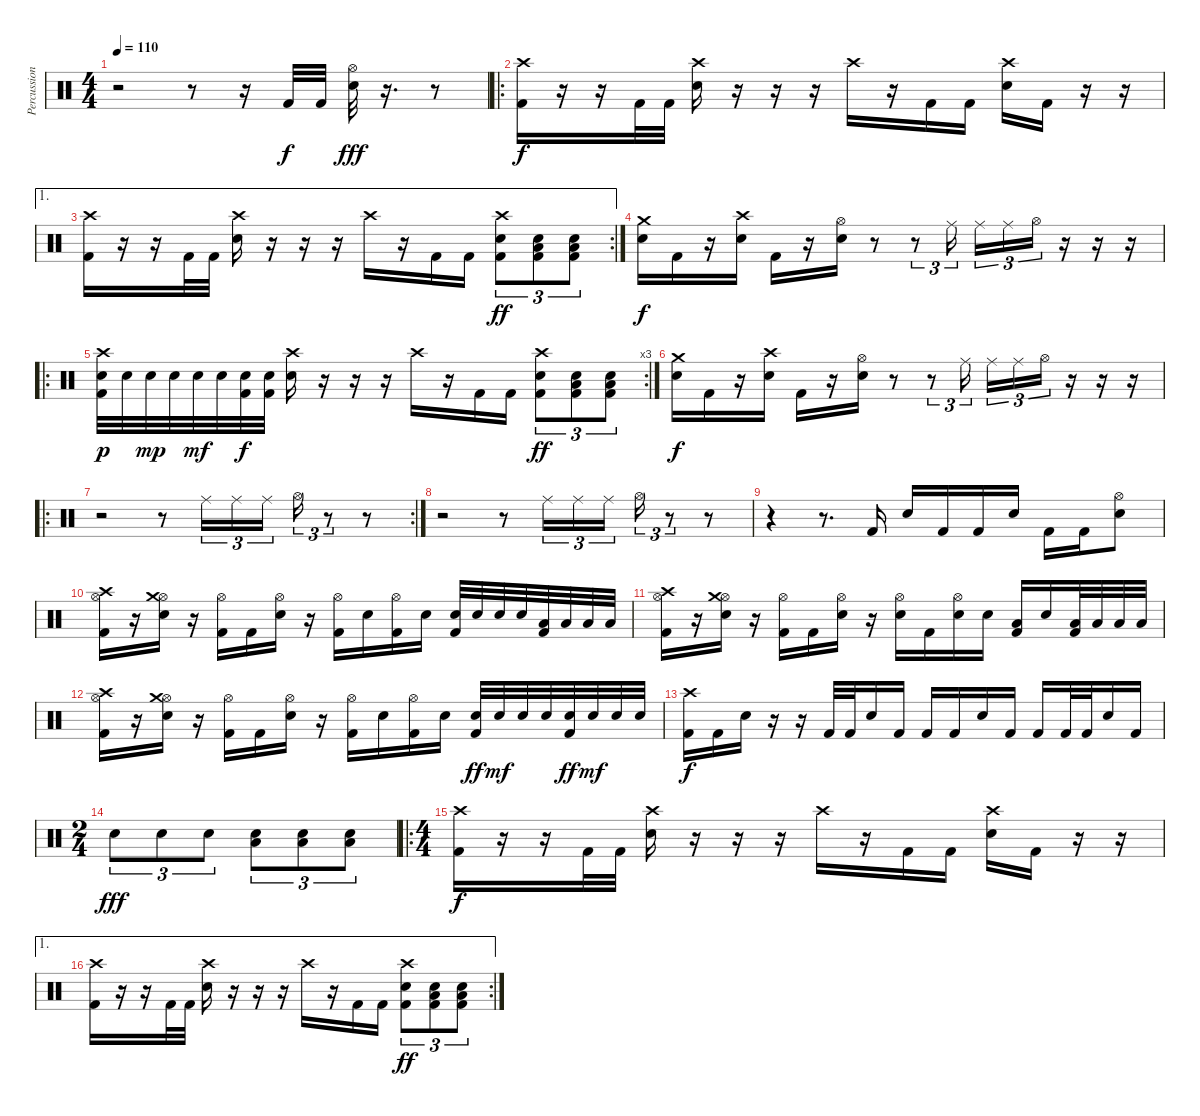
\track ("Percussion" "Percussion") {instrument percussion}
\staff {score}
\articulation defaults
\ts (4 4)
\tempo 110
\clef neutral
\ks c
r.2{dy f} r.8 r.16 "Kick (hit) 2".32 "Kick (hit) 2".32 ("Hi-Hat (open)" "Electric Snare (hit)").32{dy fff} r.16{d} r.8 |
\ro
("Crash high (hit)" "Kick (hit) 2").16{dy f} r.16 r.16 "Kick (hit) 2".32 "Kick (hit) 2".32 ("Crash high (hit)" "Electric Snare (hit)").16 r.16 r.16 r.16 "Crash high (hit)".16 r.16 "Kick (hit) 2".16 "Kick (hit) 2".16 ("Crash high (hit)" "Electric Snare (hit)").16 "Kick (hit) 2".16 r.16 r.16 |
\ae 1
\rc 2
("Crash high (hit)" "Kick (hit) 2").16 r.16 r.16 "Kick (hit) 2".32 "Kick (hit) 2".32 ("Crash high (hit)" "Electric Snare (hit)").16 r.16 r.16 r.16 "Crash high (hit)".16 r.16 "Kick (hit) 2".16 "Kick (hit) 2".16 ("Crash high (hit)" "Electric Snare (hit)" "Kick (hit) 2").8{tu (3 2) dy ff} ("Low Tom (hit)" "Electric Snare (hit)" "Kick (hit) 2").8{tu (3 2)} ("Low Tom (hit)" "Electric Snare (hit)" "Kick (hit) 2").8{tu (3 2)} |
("Crash medium (hit)" "Electric Snare (hit)").16{dy f} "Kick (hit) 2".16 r.16 ("Crash high (hit)" "Electric Snare (hit)").16 "Kick (hit) 2".16 r.16 ("Hi-Hat (open)" "Electric Snare (hit)").16 r.8 r.8{tu (3 2)} "Ride (middle)".16{tu (3 2)} "Ride (middle)".16{tu (3 2)} "Ride (middle)".16{tu (3 2)} "Hi-Hat (open)".16{tu (3 2)} r.16 r.16 r.16 |
\ro
\rc 3
("Crash high (hit)" "Electric Snare (hit)" "Kick (hit) 2").32{dy p} "Electric Snare (hit)".32 "Electric Snare (hit)".32{dy mp} "Electric Snare (hit)".32 "Electric Snare (hit)".32{dy mf} "Electric Snare (hit)".32 ("Electric Snare (hit)" "Kick (hit) 2").32{dy f} ("Electric Snare (hit)" "Kick (hit) 2").32 ("Crash high (hit)" "Electric Snare (hit)").16 r.16 r.16 r.16 "Crash high (hit)".16 r.16 "Kick (hit) 2".16 "Kick (hit) 2".16 ("Crash high (hit)" "Electric Snare (hit)" "Kick (hit) 2").8{tu (3 2) dy ff} ("Low Tom (hit)" "Electric Snare (hit)" "Kick (hit) 2").8{tu (3 2)} ("Low Tom (hit)" "Electric Snare (hit)" "Kick (hit) 2").8{tu (3 2)} |
("Crash medium (hit)" "Electric Snare (hit)").16{dy f} "Kick (hit) 2".16 r.16 ("Crash high (hit)" "Electric Snare (hit)").16 "Kick (hit) 2".16 r.16 ("Hi-Hat (open)" "Electric Snare (hit)").16 r.8 r.8{tu (3 2)} "Ride (middle)".16{tu (3 2)} "Ride (middle)".16{tu (3 2)} "Ride (middle)".16{tu (3 2)} "Hi-Hat (open)".16{tu (3 2)} r.16 r.16 r.16 |
\ro
\rc 2
r.2 r.8 "Ride (middle)".16{tu (3 2)} "Ride (middle)".16{tu (3 2)} "Ride (middle)".16{tu (3 2)} "Hi-Hat (open)".16{tu (3 2)} r.8{tu (3 2)} r.8 |
r.2 r.8 "Ride (middle)".16{tu (3 2)} "Ride (middle)".16{tu (3 2)} "Ride (middle)".16{tu (3 2)} "Hi-Hat (open)".16{tu (3 2)} r.8{tu (3 2)} r.8 |
r.4 r.8{d} "Kick (hit) 2".16 "Electric Snare (hit)".16 "Kick (hit) 2".16 "Kick (hit) 2".16 "Electric Snare (hit)".16 "Kick (hit) 2".16 "Kick (hit) 2".16 ("Hi-Hat (open)" "Electric Snare (hit)").8 |
("Hi-Hat (open)" "Crash high (hit)" "Kick (hit) 2").16 r.16 ("Hi-Hat (open)" "Crash medium (hit)" "Electric Snare (hit)").16 r.16 ("Hi-Hat (open)" "Kick (hit) 2").16 "Kick (hit) 2".16 ("Hi-Hat (open)" "Electric Snare (hit)").16 r.16 ("Hi-Hat (open)" "Kick (hit) 2").16 "Electric Snare (hit)".16 ("Hi-Hat (open)" "Kick (hit) 2").16 "Electric Snare (hit)".16 ("Electric Snare (hit)" "Kick (hit) 2").32 "Electric Snare (hit)".32 "Electric Snare (hit)".32 "Electric Snare (hit)".32 ("Low Tom (hit)" "Kick (hit) 2").32 "Low Tom (hit)".32 "Low Tom (hit)".32 "Low Tom (hit)".32 |
("Hi-Hat (open)" "Crash high (hit)" "Kick (hit) 2").16 r.16 ("Hi-Hat (open)" "Crash medium (hit)" "Electric Snare (hit)").16 r.16 ("Hi-Hat (open)" "Kick (hit) 2").16 "Kick (hit) 2".16 ("Hi-Hat (open)" "Electric Snare (hit)").16 r.16 ("Hi-Hat (open)" "Electric Snare (hit)").16 "Kick (hit) 2".16 ("Hi-Hat (open)" "Electric Snare (hit)").16 "Electric Snare (hit)".16 ("Low Tom (hit)" "Kick (hit) 2").16 "Electric Snare (hit)".16 ("Low Tom (hit)" "Kick (hit) 2").32 "Low Tom (hit)".32 "Low Tom (hit)".32 "Low Tom (hit)".32 |
("Hi-Hat (open)" "Crash high (hit)" "Kick (hit) 2").16 r.16 ("Hi-Hat (open)" "Crash medium (hit)" "Electric Snare (hit)").16 r.16 ("Hi-Hat (open)" "Kick (hit) 2").16 "Kick (hit) 2".16 ("Hi-Hat (open)" "Electric Snare (hit)").16 r.16 ("Hi-Hat (open)" "Kick (hit) 2").16 "Electric Snare (hit)".16 ("Hi-Hat (open)" "Kick (hit) 2").16 "Electric Snare (hit)".16 ("Electric Snare (hit)" "Kick (hit) 2").32{dy ff} "Electric Snare (hit)".32{dy mf} "Electric Snare (hit)".32 "Electric Snare (hit)".32 ("Electric Snare (hit)" "Kick (hit) 2").32{dy ff} "Electric Snare (hit)".32{dy mf} "Electric Snare (hit)".32 "Electric Snare (hit)".32 |
("Crash high (hit)" "Kick (hit) 2").16{dy f} "Kick (hit) 2".16 "Electric Snare (hit)".16 r.16 r.16 "Kick (hit) 2".32 "Kick (hit) 2".32 "Electric Snare (hit)".16 "Kick (hit) 2".16 "Kick (hit) 2".16 "Kick (hit) 2".16 "Electric Snare (hit)".16 "Kick (hit) 2".16 "Kick (hit) 2".16 "Kick (hit) 2".32 "Kick (hit) 2".32 "Electric Snare (hit)".16 "Kick (hit) 2".16 |
\ts (2 4)
"Electric Snare (hit)".8{tu (3 2) dy fff} "Electric Snare (hit)".8{tu (3 2)} "Electric Snare (hit)".8{tu (3 2)} ("Low Tom (hit)" "Electric Snare (hit)").8{tu (3 2)} ("Low Tom (hit)" "Electric Snare (hit)").8{tu (3 2)} ("Low Tom (hit)" "Electric Snare (hit)").8{tu (3 2)} |
\ro
\ts (4 4)
("Crash high (hit)" "Kick (hit) 2").16{dy f} r.16 r.16 "Kick (hit) 2".32 "Kick (hit) 2".32 ("Crash high (hit)" "Electric Snare (hit)").16 r.16 r.16 r.16 "Crash high (hit)".16 r.16 "Kick (hit) 2".16 "Kick (hit) 2".16 ("Crash high (hit)" "Electric Snare (hit)").16 "Kick (hit) 2".16 r.16 r.16 |
\ae 1
\rc 2
("Crash high (hit)" "Kick (hit) 2").16 r.16 r.16 "Kick (hit) 2".32 "Kick (hit) 2".32 ("Crash high (hit)" "Electric Snare (hit)").16 r.16 r.16 r.16 "Crash high (hit)".16 r.16 "Kick (hit) 2".16 "Kick (hit) 2".16 ("Crash high (hit)" "Electric Snare (hit)" "Kick (hit) 2").8{tu (3 2) dy ff} ("Low Tom (hit)" "Electric Snare (hit)" "Kick (hit) 2").8{tu (3 2)} ("Low Tom (hit)" "Electric Snare (hit)" "Kick (hit) 2").8{tu (3 2)}
